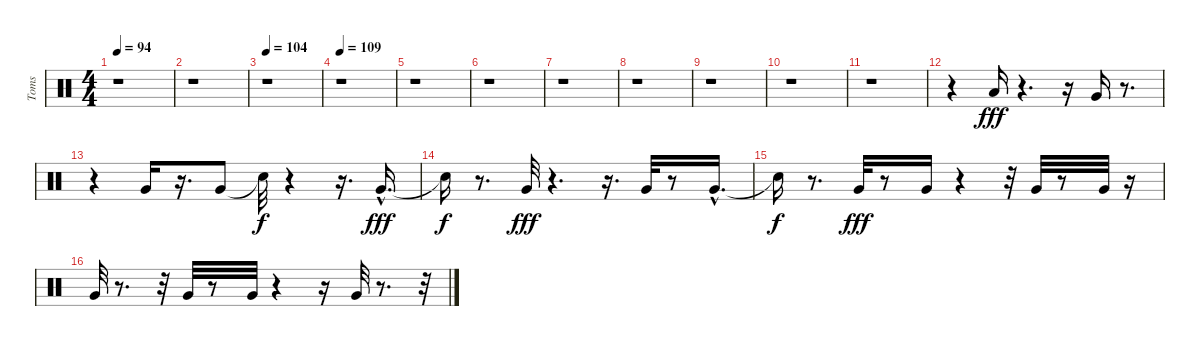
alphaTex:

\track ("Toms            " "Toms      ") {instrument percussion}
\staff {score}
\articulation defaults
\ts (4 4)
\tempo 94
\clef neutral
\ks c
r.1{dy fff} |
r.1 |
\tempo 104
r.1 |
\tempo 109
r.1 |
r.1 |
r.1 |
r.1 |
r.1 |
r.1 |
r.1 |
r.1 |
r.4 "Low Tom (hit)".16 r.4{d} r.16 "Very Low Tom (hit)".16 r.8{d} |
r.4 "Very Low Tom (hit)".16 r.16{d} "Very Low Tom (hit)".8 "Snare (hit)"{t}.32{dy f} r.4 r.16{d} "Very Low Tom (hit)"{hac}.16{d dy fff} |
"Snare (hit)"{t}.16{dy f} r.8{d} "Very Low Tom (hit)".32{dy fff} r.4{d} r.16{d} "Very Low Tom (hit)".32 r.8 "Very Low Tom (hit)"{hac}.16{d} |
"Snare (hit)"{t}.16{dy f} r.8{d} "Very Low Tom (hit)".32{dy fff} r.8 "Very Low Tom (hit)".16 r.4 r.32 "Very Low Tom (hit)".32 r.8 "Very Low Tom (hit)".32 r.16 |
"Very Low Tom (hit)".32 r.8{d} r.32 "Very Low Tom (hit)".32 r.8 "Very Low Tom (hit)".32 r.4 r.16 "Very Low Tom (hit)".32 r.8{d} r.32
